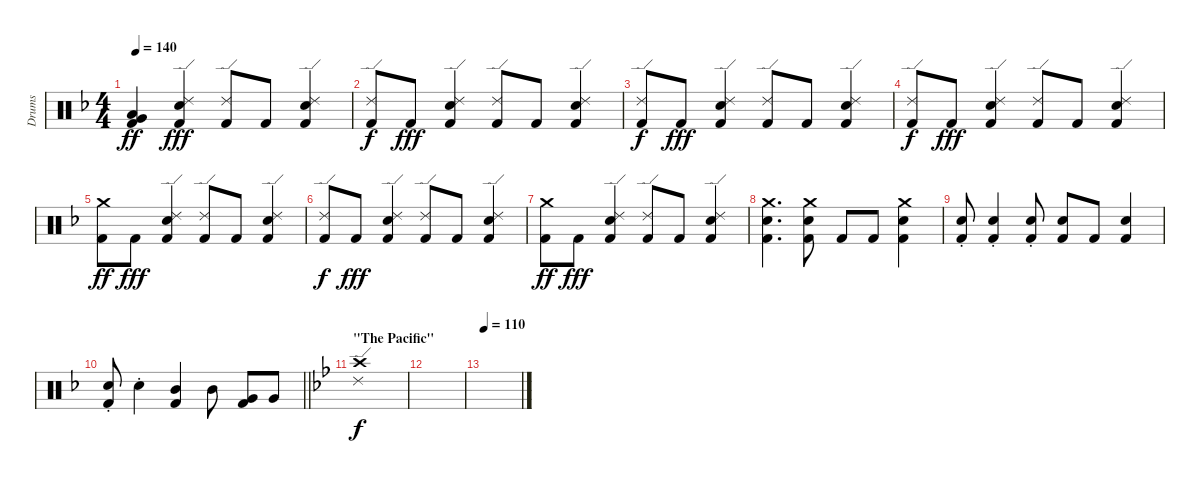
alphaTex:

\track ("Drums" "Drums") {instrument percussion}
\staff {score}
\articulation defaults
\ts (4 4)
\tempo 140
\clef neutral
\ks dminor
("Very Low Tom (hit)" "Low Tom (hit)" "Kick (hit) 2").4{dy ff} ("Kick (hit) 2" "Electric Snare (hit)" "Ride (edge) 2").4{dy fff} ("Kick (hit) 2" "Ride (edge) 2").8 "Kick (hit) 2".8 ("Kick (hit) 2" "Electric Snare (hit)" "Ride (edge) 2").4 |
("Kick (hit) 2" "Ride (edge) 2").8{dy f} "Kick (hit) 2".8{dy fff} ("Kick (hit) 2" "Electric Snare (hit)" "Ride (edge) 2").4 ("Kick (hit) 2" "Ride (edge) 2").8 "Kick (hit) 2".8 ("Kick (hit) 2" "Electric Snare (hit)" "Ride (edge) 2").4 |
("Kick (hit) 2" "Ride (edge) 2").8{dy f} "Kick (hit) 2".8{dy fff} ("Kick (hit) 2" "Electric Snare (hit)" "Ride (edge) 2").4 ("Kick (hit) 2" "Ride (edge) 2").8 "Kick (hit) 2".8 ("Kick (hit) 2" "Electric Snare (hit)" "Ride (edge) 2").4 |
("Kick (hit) 2" "Ride (edge) 2").8{dy f} "Kick (hit) 2".8{dy fff} ("Kick (hit) 2" "Electric Snare (hit)" "Ride (edge) 2").4 ("Kick (hit) 2" "Ride (edge) 2").8 "Kick (hit) 2".8 ("Kick (hit) 2" "Electric Snare (hit)" "Ride (edge) 2").4 |
("Kick (hit) 2" "Crash medium (hit)").8{dy ff} "Kick (hit) 2".8{dy fff} ("Kick (hit) 2" "Electric Snare (hit)" "Ride (edge) 2").4 ("Kick (hit) 2" "Ride (edge) 2").8 "Kick (hit) 2".8 ("Kick (hit) 2" "Electric Snare (hit)" "Ride (edge) 2").4 |
("Kick (hit) 2" "Ride (edge) 2").8{dy f} "Kick (hit) 2".8{dy fff} ("Kick (hit) 2" "Electric Snare (hit)" "Ride (edge) 2").4 ("Kick (hit) 2" "Ride (edge) 2").8 "Kick (hit) 2".8 ("Kick (hit) 2" "Electric Snare (hit)" "Ride (edge) 2").4 |
("Kick (hit) 2" "Crash medium (hit)").8{dy ff} "Kick (hit) 2".8{dy fff} ("Kick (hit) 2" "Electric Snare (hit)" "Ride (edge) 2").4 ("Kick (hit) 2" "Ride (edge) 2").8 "Kick (hit) 2".8 ("Kick (hit) 2" "Electric Snare (hit)" "Ride (edge) 2").4 |
("Electric Snare (hit)" "Kick (hit) 2" "Crash medium (hit)").4{d} ("Electric Snare (hit)" "Kick (hit) 2" "Crash medium (hit)").8 "Kick (hit) 2".8 "Kick (hit) 2".8 ("Electric Snare (hit)" "Kick (hit) 2" "Crash medium (hit)").4 |
("Electric Snare (hit)"{st} "Kick (hit) 2").8 ("Electric Snare (hit)"{st} "Kick (hit) 2").4 ("Electric Snare (hit)"{st} "Kick (hit) 2").8 ("Electric Snare (hit)" "Kick (hit) 2").8 "Kick (hit) 2".8 ("Electric Snare (hit)" "Kick (hit) 2").4 |
\barLineRight lightlight
("Electric Snare (hit)"{st} "Kick (hit) 2").8 "Electric Snare (hit)"{st}.4 ("Mid Tom (hit)" "Kick (hit) 2").4 "Mid Tom (hit)".8 ("Very Low Tom (hit)" "Kick (hit) 2").8 "Very Low Tom (hit)".8 |
\section ("" "\"The Pacific\"")
\ks gminor
("Crash high (hit)" "Ride (edge) 2").1{dy f} |
|
\tempo 110
